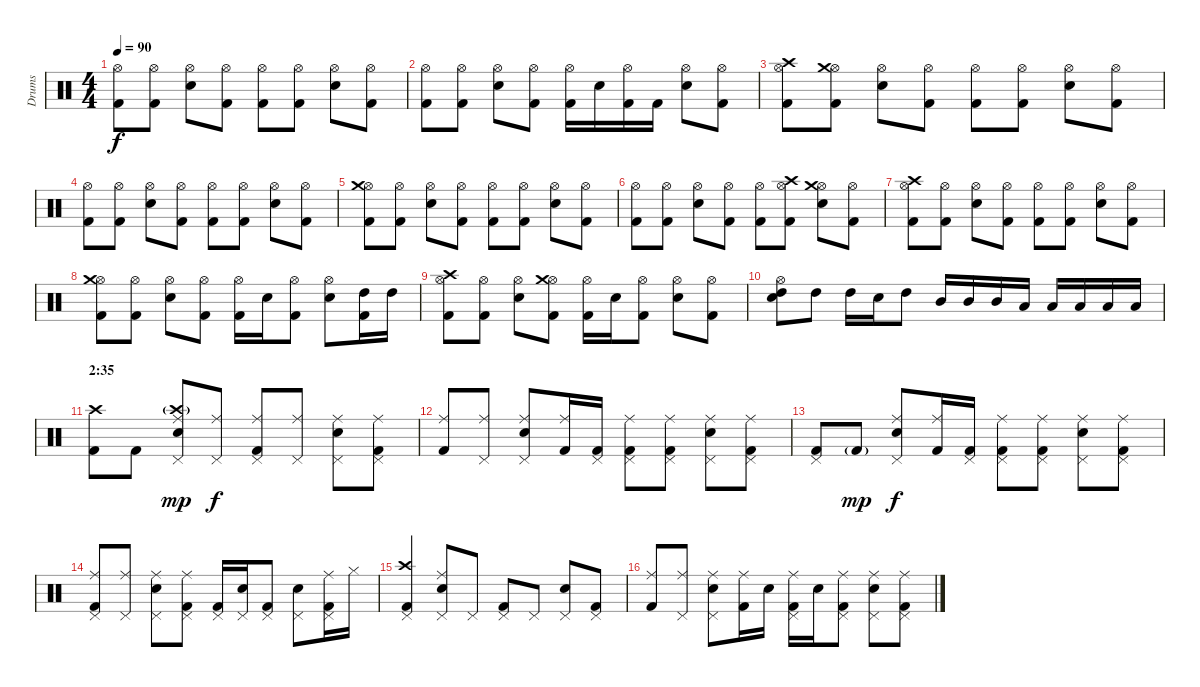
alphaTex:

\track ("Drums" "Drums") {instrument percussion}
\staff {score}
\articulation defaults
\ts (4 4)
\tempo 90
\clef neutral
\ks c
("Kick (hit) 2" "Hi-Hat (open)").8{dy f} ("Kick (hit) 2" "Hi-Hat (open)").8 ("Electric Snare (hit)" "Hi-Hat (open)").8 ("Kick (hit) 2" "Hi-Hat (open)").8 ("Kick (hit) 2" "Hi-Hat (open)").8 ("Kick (hit) 2" "Hi-Hat (open)").8 ("Electric Snare (hit)" "Hi-Hat (open)").8 ("Kick (hit) 2" "Hi-Hat (open)").8 |
("Kick (hit) 2" "Hi-Hat (open)").8 ("Kick (hit) 2" "Hi-Hat (open)").8 ("Electric Snare (hit)" "Hi-Hat (open)").8 ("Kick (hit) 2" "Hi-Hat (open)").8 ("Kick (hit) 2" "Hi-Hat (open)").16 "Snare (hit) 2".16 ("Kick (hit) 2" "Hi-Hat (open)").16 "Kick (hit) 2".16 ("Electric Snare (hit)" "Hi-Hat (open)").8 ("Kick (hit) 2" "Hi-Hat (open)").8 |
("Kick (hit) 2" "Hi-Hat (open)" "Crash high (hit)").8 ("Kick (hit) 2" "Hi-Hat (open)" "Crash medium (hit)").8 ("Electric Snare (hit)" "Hi-Hat (open)").8 ("Kick (hit) 2" "Hi-Hat (open)").8 ("Kick (hit) 2" "Hi-Hat (open)").8 ("Kick (hit) 2" "Hi-Hat (open)").8 ("Electric Snare (hit)" "Hi-Hat (open)").8 ("Kick (hit) 2" "Hi-Hat (open)").8 |
("Kick (hit) 2" "Hi-Hat (open)").8 ("Kick (hit) 2" "Hi-Hat (open)").8 ("Electric Snare (hit)" "Hi-Hat (open)").8 ("Kick (hit) 2" "Hi-Hat (open)").8 ("Kick (hit) 2" "Hi-Hat (open)").8 ("Kick (hit) 2" "Hi-Hat (open)").8 ("Electric Snare (hit)" "Hi-Hat (open)").8 ("Kick (hit) 2" "Hi-Hat (open)").8 |
("Kick (hit) 2" "Hi-Hat (open)" "Crash medium (hit)").8 ("Kick (hit) 2" "Hi-Hat (open)").8 ("Electric Snare (hit)" "Hi-Hat (open)").8 ("Kick (hit) 2" "Hi-Hat (open)").8 ("Kick (hit) 2" "Hi-Hat (open)").8 ("Kick (hit) 2" "Hi-Hat (open)").8 ("Electric Snare (hit)" "Hi-Hat (open)").8 ("Kick (hit) 2" "Hi-Hat (open)").8 |
("Kick (hit) 2" "Hi-Hat (open)").8 ("Kick (hit) 2" "Hi-Hat (open)").8 ("Electric Snare (hit)" "Hi-Hat (open)").8 ("Kick (hit) 2" "Hi-Hat (open)").8 ("Kick (hit) 2" "Hi-Hat (open)").8 ("Kick (hit) 2" "Hi-Hat (open)" "Crash high (hit)").8 ("Electric Snare (hit)" "Hi-Hat (open)" "Crash medium (hit)").8 ("Kick (hit) 2" "Hi-Hat (open)").8 |
("Kick (hit) 2" "Hi-Hat (open)" "Crash high (hit)").8 ("Kick (hit) 2" "Hi-Hat (open)").8 ("Electric Snare (hit)" "Hi-Hat (open)").8 ("Kick (hit) 2" "Hi-Hat (open)").8 ("Kick (hit) 2" "Hi-Hat (open)").8 ("Kick (hit) 2" "Hi-Hat (open)").8 ("Electric Snare (hit)" "Hi-Hat (open)").8 ("Kick (hit) 2" "Hi-Hat (open)").8 |
("Kick (hit) 2" "Hi-Hat (open)" "Crash medium (hit)").8 ("Kick (hit) 2" "Hi-Hat (open)").8 ("Electric Snare (hit)" "Hi-Hat (open)").8 ("Kick (hit) 2" "Hi-Hat (open)").8 ("Kick (hit) 2" "Hi-Hat (open)").16 "Electric Snare (hit)".16 ("Kick (hit) 2" "Hi-Hat (open)").8 ("Electric Snare (hit)" "Hi-Hat (open)").8 ("Kick (hit) 2" "High Tom (hit)").16 "High Tom (hit)".16 |
("Kick (hit) 2" "Hi-Hat (open)" "Crash high (hit)").8 ("Kick (hit) 2" "Hi-Hat (open)").8 ("Electric Snare (hit)" "Hi-Hat (open)").8 ("Kick (hit) 2" "Hi-Hat (open)" "Crash medium (hit)").8 ("Kick (hit) 2" "Hi-Hat (open)").16 "Electric Snare (hit)".16 ("Kick (hit) 2" "Hi-Hat (open)").8 ("Electric Snare (hit)" "Hi-Hat (open)").8 ("Kick (hit) 2" "Hi-Hat (open)").8 |
("Electric Snare (hit)" "Hi-Hat (open)" "High Tom (hit)").8 "High Tom (hit)".8 "High Tom (hit)".16 "Snare (hit) 2".16 "High Tom (hit)".8 "Mid Tom (hit)".16 "Mid Tom (hit)".16 "Mid Tom (hit)".16 "Low Tom (hit)".16 "Low Tom (hit)".16 "Low Tom (hit)".16 "Low Tom (hit)".16 "Low Tom (hit)".16 |
\section ("" "2:35")
("Kick (hit) 2" "Crash high (hit)").8 "Kick (hit) 2".8 ("Snare (hit) 2" "Pedal Hi-Hat (hit)" "Crash high (hit)"{g} "Ride (middle)").8{dy mp} ("Pedal Hi-Hat (hit)" "Ride (middle)").8{dy f} ("Kick (hit) 2" "Pedal Hi-Hat (hit)" "Ride (middle)").8 ("Pedal Hi-Hat (hit)" "Ride (middle)").8 ("Snare (hit) 2" "Pedal Hi-Hat (hit)" "Ride (middle)").8 ("Kick (hit) 2" "Pedal Hi-Hat (hit)" "Ride (middle)").8 |
("Kick (hit) 2" "Ride (middle)").8 ("Pedal Hi-Hat (hit)" "Ride (middle)").8 ("Snare (hit) 2" "Pedal Hi-Hat (hit)" "Ride (middle)").8 ("Kick (hit) 2" "Ride (middle)").16 ("Kick (hit) 2" "Pedal Hi-Hat (hit)").16 ("Kick (hit) 2" "Pedal Hi-Hat (hit)" "Ride (middle)").8 ("Kick (hit) 2" "Pedal Hi-Hat (hit)" "Ride (middle)").8 ("Snare (hit) 2" "Pedal Hi-Hat (hit)" "Ride (middle)").8 ("Kick (hit) 2" "Pedal Hi-Hat (hit)" "Ride (middle)").8 |
("Kick (hit) 2" "Pedal Hi-Hat (hit)").8 "Kick (hit) 2"{g}.8{dy mp} ("Snare (hit) 2" "Pedal Hi-Hat (hit)" "Ride (middle)").8{dy f} ("Kick (hit) 2" "Ride (middle)").16 ("Kick (hit) 2" "Pedal Hi-Hat (hit)").16 ("Kick (hit) 2" "Pedal Hi-Hat (hit)" "Ride (middle)").8 ("Kick (hit) 2" "Pedal Hi-Hat (hit)" "Ride (middle)").8 ("Snare (hit) 2" "Pedal Hi-Hat (hit)" "Ride (middle)").8 ("Kick (hit) 2" "Pedal Hi-Hat (hit)" "Ride (middle)").8 |
("Kick (hit) 2" "Pedal Hi-Hat (hit)" "Ride (middle)").8 ("Pedal Hi-Hat (hit)" "Ride (middle)").8 ("Snare (hit) 2" "Pedal Hi-Hat (hit)" "Ride (middle)").8 ("Kick (hit) 2" "Pedal Hi-Hat (hit)" "Ride (middle)").8 ("Kick (hit) 2" "Pedal Hi-Hat (hit)").16 ("Snare (hit) 2" "Pedal Hi-Hat (hit)").16 ("Kick (hit) 2" "Pedal Hi-Hat (hit)").8 ("Snare (hit) 2" "Pedal Hi-Hat (hit)").8 ("Kick (hit) 2" "Pedal Hi-Hat (hit)" "Ride (middle)").16 "Hi-Hat (closed)".16 |
("Kick (hit) 2" "Pedal Hi-Hat (hit)" "Crash high (hit)").4 ("Snare (hit) 2" "Pedal Hi-Hat (hit)" "Ride (middle)").8 "Pedal Hi-Hat (hit)".8 ("Kick (hit) 2" "Pedal Hi-Hat (hit)").8 "Pedal Hi-Hat (hit)".8 ("Snare (hit) 2" "Pedal Hi-Hat (hit)").8 ("Kick (hit) 2" "Pedal Hi-Hat (hit)").8 |
("Kick (hit) 2" "Ride (middle)").8 ("Pedal Hi-Hat (hit)" "Ride (middle)").8 ("Snare (hit) 2" "Pedal Hi-Hat (hit)" "Ride (middle)").8 ("Kick (hit) 2" "Ride (middle)").16 "Snare (hit) 2".16 ("Kick (hit) 2" "Pedal Hi-Hat (hit)" "Ride (middle)").16 "Snare (hit) 2".16 ("Kick (hit) 2" "Pedal Hi-Hat (hit)" "Ride (middle)").8 ("Snare (hit) 2" "Pedal Hi-Hat (hit)" "Ride (middle)").8 ("Kick (hit) 2" "Pedal Hi-Hat (hit)" "Ride (middle)").8
